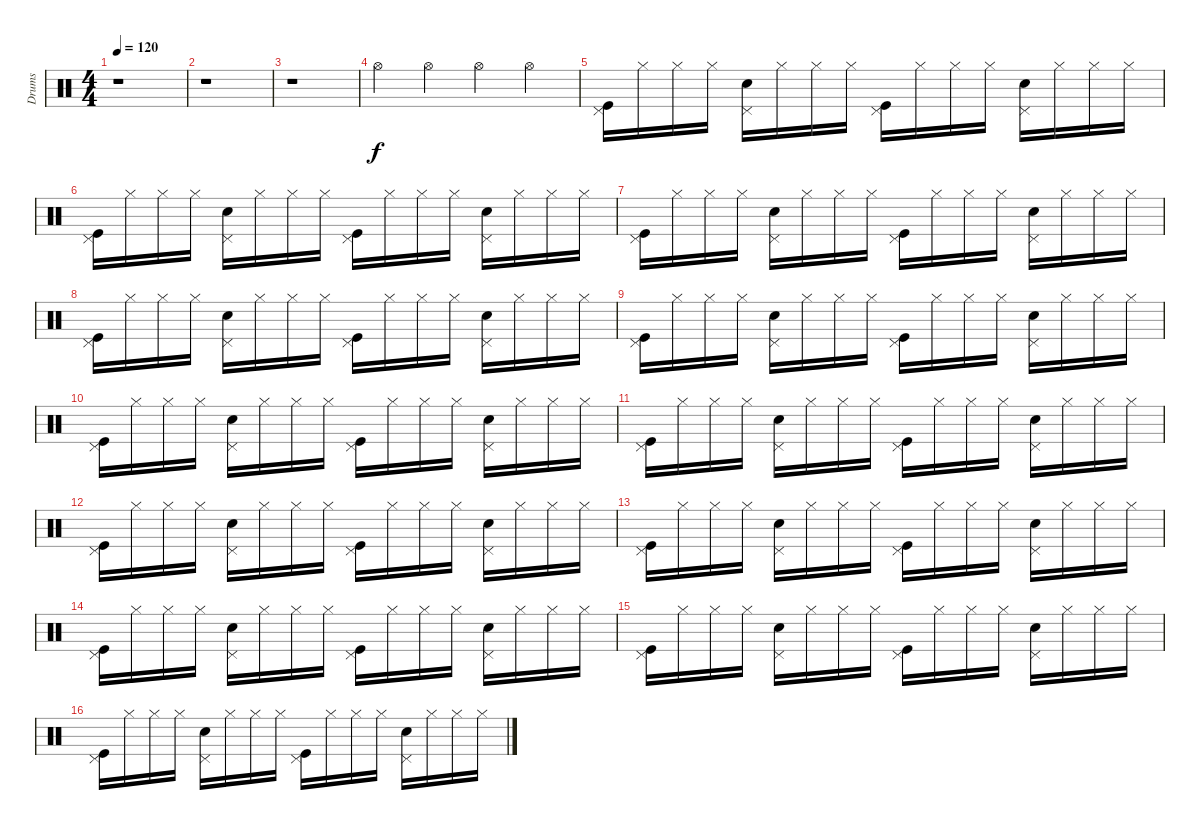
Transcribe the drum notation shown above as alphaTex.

\track ("Drums" "Drums") {instrument percussion}
\staff {score}
\articulation defaults
\ts (4 4)
\tempo 120
\clef neutral
\ks c
r.1{dy f} |
r.1 |
r.1 |
"Hi-Hat (open)".4 "Hi-Hat (open)".4 "Hi-Hat (open)".4 "Hi-Hat (open)".4 |
("Pedal Hi-Hat (hit)" "Kick (hit)").16 "Hi-Hat (closed)".16 "Hi-Hat (closed)".16 "Hi-Hat (closed)".16 ("Pedal Hi-Hat (hit)" "Snare (hit) 2").16 "Hi-Hat (closed)".16 "Hi-Hat (closed)".16 "Hi-Hat (closed)".16 ("Pedal Hi-Hat (hit)" "Kick (hit)").16 "Hi-Hat (closed)".16 "Hi-Hat (closed)".16 "Hi-Hat (closed)".16 ("Pedal Hi-Hat (hit)" "Snare (hit) 2").16 "Hi-Hat (closed)".16 "Hi-Hat (closed)".16 "Hi-Hat (closed)".16 |
("Pedal Hi-Hat (hit)" "Kick (hit)").16 "Hi-Hat (closed)".16 "Hi-Hat (closed)".16 "Hi-Hat (closed)".16 ("Pedal Hi-Hat (hit)" "Snare (hit) 2").16 "Hi-Hat (closed)".16 "Hi-Hat (closed)".16 "Hi-Hat (closed)".16 ("Pedal Hi-Hat (hit)" "Kick (hit)").16 "Hi-Hat (closed)".16 "Hi-Hat (closed)".16 "Hi-Hat (closed)".16 ("Pedal Hi-Hat (hit)" "Snare (hit) 2").16 "Hi-Hat (closed)".16 "Hi-Hat (closed)".16 "Hi-Hat (closed)".16 |
("Pedal Hi-Hat (hit)" "Kick (hit)").16 "Hi-Hat (closed)".16 "Hi-Hat (closed)".16 "Hi-Hat (closed)".16 ("Pedal Hi-Hat (hit)" "Snare (hit) 2").16 "Hi-Hat (closed)".16 "Hi-Hat (closed)".16 "Hi-Hat (closed)".16 ("Pedal Hi-Hat (hit)" "Kick (hit)").16 "Hi-Hat (closed)".16 "Hi-Hat (closed)".16 "Hi-Hat (closed)".16 ("Pedal Hi-Hat (hit)" "Snare (hit) 2").16 "Hi-Hat (closed)".16 "Hi-Hat (closed)".16 "Hi-Hat (closed)".16 |
("Pedal Hi-Hat (hit)" "Kick (hit)").16 "Hi-Hat (closed)".16 "Hi-Hat (closed)".16 "Hi-Hat (closed)".16 ("Pedal Hi-Hat (hit)" "Snare (hit) 2").16 "Hi-Hat (closed)".16 "Hi-Hat (closed)".16 "Hi-Hat (closed)".16 ("Pedal Hi-Hat (hit)" "Kick (hit)").16 "Hi-Hat (closed)".16 "Hi-Hat (closed)".16 "Hi-Hat (closed)".16 ("Pedal Hi-Hat (hit)" "Snare (hit) 2").16 "Hi-Hat (closed)".16 "Hi-Hat (closed)".16 "Hi-Hat (closed)".16 |
("Pedal Hi-Hat (hit)" "Kick (hit)").16 "Hi-Hat (closed)".16 "Hi-Hat (closed)".16 "Hi-Hat (closed)".16 ("Pedal Hi-Hat (hit)" "Snare (hit) 2").16 "Hi-Hat (closed)".16 "Hi-Hat (closed)".16 "Hi-Hat (closed)".16 ("Pedal Hi-Hat (hit)" "Kick (hit)").16 "Hi-Hat (closed)".16 "Hi-Hat (closed)".16 "Hi-Hat (closed)".16 ("Pedal Hi-Hat (hit)" "Snare (hit) 2").16 "Hi-Hat (closed)".16 "Hi-Hat (closed)".16 "Hi-Hat (closed)".16 |
("Pedal Hi-Hat (hit)" "Kick (hit)").16 "Hi-Hat (closed)".16 "Hi-Hat (closed)".16 "Hi-Hat (closed)".16 ("Pedal Hi-Hat (hit)" "Snare (hit) 2").16 "Hi-Hat (closed)".16 "Hi-Hat (closed)".16 "Hi-Hat (closed)".16 ("Pedal Hi-Hat (hit)" "Kick (hit)").16 "Hi-Hat (closed)".16 "Hi-Hat (closed)".16 "Hi-Hat (closed)".16 ("Pedal Hi-Hat (hit)" "Snare (hit) 2").16 "Hi-Hat (closed)".16 "Hi-Hat (closed)".16 "Hi-Hat (closed)".16 |
("Pedal Hi-Hat (hit)" "Kick (hit)").16 "Hi-Hat (closed)".16 "Hi-Hat (closed)".16 "Hi-Hat (closed)".16 ("Pedal Hi-Hat (hit)" "Snare (hit) 2").16 "Hi-Hat (closed)".16 "Hi-Hat (closed)".16 "Hi-Hat (closed)".16 ("Pedal Hi-Hat (hit)" "Kick (hit)").16 "Hi-Hat (closed)".16 "Hi-Hat (closed)".16 "Hi-Hat (closed)".16 ("Pedal Hi-Hat (hit)" "Snare (hit) 2").16 "Hi-Hat (closed)".16 "Hi-Hat (closed)".16 "Hi-Hat (closed)".16 |
("Pedal Hi-Hat (hit)" "Kick (hit)").16 "Hi-Hat (closed)".16 "Hi-Hat (closed)".16 "Hi-Hat (closed)".16 ("Pedal Hi-Hat (hit)" "Snare (hit) 2").16 "Hi-Hat (closed)".16 "Hi-Hat (closed)".16 "Hi-Hat (closed)".16 ("Pedal Hi-Hat (hit)" "Kick (hit)").16 "Hi-Hat (closed)".16 "Hi-Hat (closed)".16 "Hi-Hat (closed)".16 ("Pedal Hi-Hat (hit)" "Snare (hit) 2").16 "Hi-Hat (closed)".16 "Hi-Hat (closed)".16 "Hi-Hat (closed)".16 |
("Pedal Hi-Hat (hit)" "Kick (hit)").16 "Hi-Hat (closed)".16 "Hi-Hat (closed)".16 "Hi-Hat (closed)".16 ("Pedal Hi-Hat (hit)" "Snare (hit) 2").16 "Hi-Hat (closed)".16 "Hi-Hat (closed)".16 "Hi-Hat (closed)".16 ("Pedal Hi-Hat (hit)" "Kick (hit)").16 "Hi-Hat (closed)".16 "Hi-Hat (closed)".16 "Hi-Hat (closed)".16 ("Pedal Hi-Hat (hit)" "Snare (hit) 2").16 "Hi-Hat (closed)".16 "Hi-Hat (closed)".16 "Hi-Hat (closed)".16 |
("Pedal Hi-Hat (hit)" "Kick (hit)").16 "Hi-Hat (closed)".16 "Hi-Hat (closed)".16 "Hi-Hat (closed)".16 ("Pedal Hi-Hat (hit)" "Snare (hit) 2").16 "Hi-Hat (closed)".16 "Hi-Hat (closed)".16 "Hi-Hat (closed)".16 ("Pedal Hi-Hat (hit)" "Kick (hit)").16 "Hi-Hat (closed)".16 "Hi-Hat (closed)".16 "Hi-Hat (closed)".16 ("Pedal Hi-Hat (hit)" "Snare (hit) 2").16 "Hi-Hat (closed)".16 "Hi-Hat (closed)".16 "Hi-Hat (closed)".16 |
("Pedal Hi-Hat (hit)" "Kick (hit)").16 "Hi-Hat (closed)".16 "Hi-Hat (closed)".16 "Hi-Hat (closed)".16 ("Pedal Hi-Hat (hit)" "Snare (hit) 2").16 "Hi-Hat (closed)".16 "Hi-Hat (closed)".16 "Hi-Hat (closed)".16 ("Pedal Hi-Hat (hit)" "Kick (hit)").16 "Hi-Hat (closed)".16 "Hi-Hat (closed)".16 "Hi-Hat (closed)".16 ("Pedal Hi-Hat (hit)" "Snare (hit) 2").16 "Hi-Hat (closed)".16 "Hi-Hat (closed)".16 "Hi-Hat (closed)".16 |
("Pedal Hi-Hat (hit)" "Kick (hit)").16 "Hi-Hat (closed)".16 "Hi-Hat (closed)".16 "Hi-Hat (closed)".16 ("Pedal Hi-Hat (hit)" "Snare (hit) 2").16 "Hi-Hat (closed)".16 "Hi-Hat (closed)".16 "Hi-Hat (closed)".16 ("Pedal Hi-Hat (hit)" "Kick (hit)").16 "Hi-Hat (closed)".16 "Hi-Hat (closed)".16 "Hi-Hat (closed)".16 ("Pedal Hi-Hat (hit)" "Snare (hit) 2").16 "Hi-Hat (closed)".16 "Hi-Hat (closed)".16 "Hi-Hat (closed)".16
